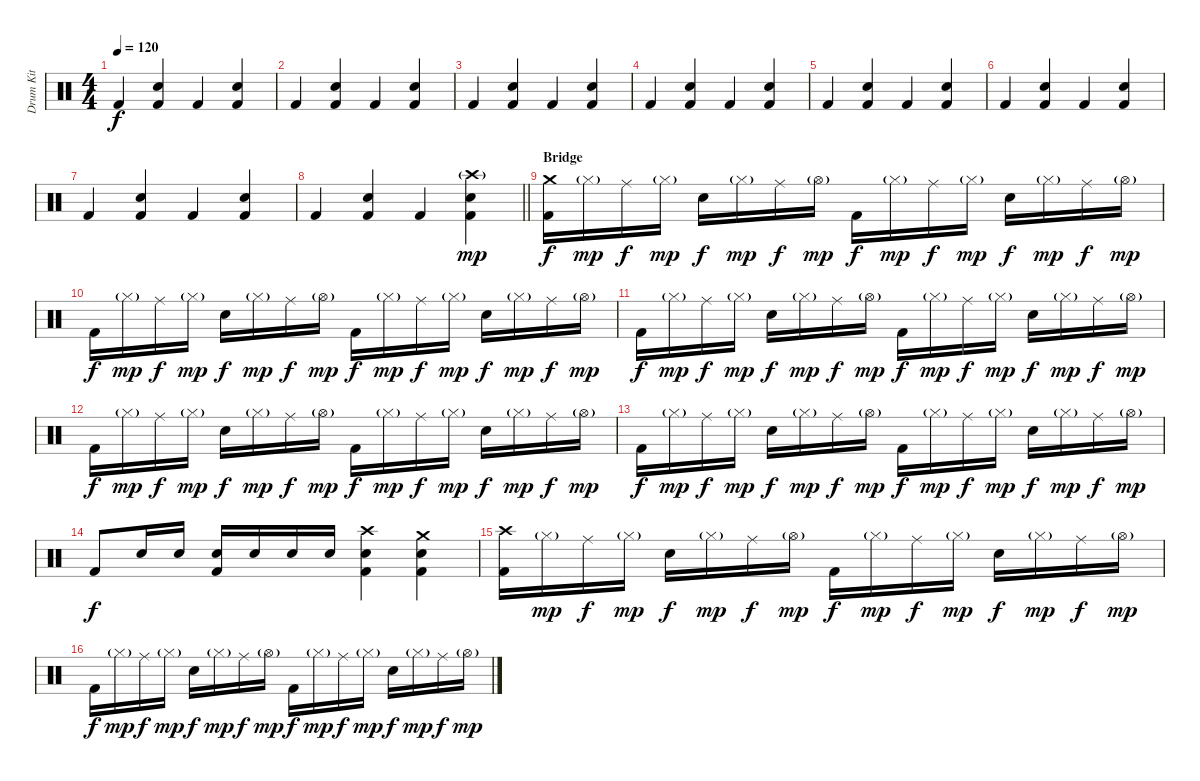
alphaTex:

\track ("Drum Kit" "Drum Kit") {instrument percussion}
\staff {score}
\articulation defaults
\ts (4 4)
\tempo 120
\clef neutral
\ks c "Kick (hit) 2".4{dy f}
("Electric Snare (hit)" "Kick (hit) 2").4 "Kick (hit) 2".4 ("Electric Snare (hit)" "Kick (hit) 2").4 |
"Kick (hit) 2".4 ("Electric Snare (hit)" "Kick (hit) 2").4 "Kick (hit) 2".4 ("Electric Snare (hit)" "Kick (hit) 2").4 |
"Kick (hit) 2".4 ("Electric Snare (hit)" "Kick (hit) 2").4 "Kick (hit) 2".4 ("Electric Snare (hit)" "Kick (hit) 2").4 |
"Kick (hit) 2".4 ("Electric Snare (hit)" "Kick (hit) 2").4 "Kick (hit) 2".4 ("Electric Snare (hit)" "Kick (hit) 2").4 |
"Kick (hit) 2".4 ("Electric Snare (hit)" "Kick (hit) 2").4 "Kick (hit) 2".4 ("Electric Snare (hit)" "Kick (hit) 2").4 |
"Kick (hit) 2".4 ("Electric Snare (hit)" "Kick (hit) 2").4 "Kick (hit) 2".4 ("Electric Snare (hit)" "Kick (hit) 2").4 |
"Kick (hit) 2".4 ("Electric Snare (hit)" "Kick (hit) 2").4 "Kick (hit) 2".4 ("Electric Snare (hit)" "Kick (hit) 2").4 |
\barLineRight lightlight "Kick (hit) 2".4
("Electric Snare (hit)" "Kick (hit) 2").4 "Kick (hit) 2".4 ("Crash high (hit)"{g} "Electric Snare (hit)" "Kick (hit) 2").4{dy mp} |
\section ("" "Bridge")
("Crash medium (hit)" "Kick (hit) 2").16{dy f} "Hi-Hat (closed)"{g}.16{dy mp} "Ride (middle)".16{dy f} "Hi-Hat (closed)"{g}.16{dy mp} "Electric Snare (hit)".16{dy f} "Hi-Hat (closed)"{g}.16{dy mp} "Ride (middle)".16{dy f} "Hi-Hat (open)"{g}.16{dy mp} "Kick (hit) 2".16{dy f} "Hi-Hat (closed)"{g}.16{dy mp} "Ride (middle)".16{dy f} "Hi-Hat (closed)"{g}.16{dy mp} "Electric Snare (hit)".16{dy f} "Hi-Hat (closed)"{g}.16{dy mp} "Ride (middle)".16{dy f} "Hi-Hat (open)"{g}.16{dy mp} |
"Kick (hit) 2".16{dy f} "Hi-Hat (closed)"{g}.16{dy mp} "Ride (middle)".16{dy f} "Hi-Hat (closed)"{g}.16{dy mp} "Electric Snare (hit)".16{dy f} "Hi-Hat (closed)"{g}.16{dy mp} "Ride (middle)".16{dy f} "Hi-Hat (open)"{g}.16{dy mp} "Kick (hit) 2".16{dy f} "Hi-Hat (closed)"{g}.16{dy mp} "Ride (middle)".16{dy f} "Hi-Hat (closed)"{g}.16{dy mp} "Electric Snare (hit)".16{dy f} "Hi-Hat (closed)"{g}.16{dy mp} "Ride (middle)".16{dy f} "Hi-Hat (open)"{g}.16{dy mp} |
"Kick (hit) 2".16{dy f} "Hi-Hat (closed)"{g}.16{dy mp} "Ride (middle)".16{dy f} "Hi-Hat (closed)"{g}.16{dy mp} "Electric Snare (hit)".16{dy f} "Hi-Hat (closed)"{g}.16{dy mp} "Ride (middle)".16{dy f} "Hi-Hat (open)"{g}.16{dy mp} "Kick (hit) 2".16{dy f} "Hi-Hat (closed)"{g}.16{dy mp} "Ride (middle)".16{dy f} "Hi-Hat (closed)"{g}.16{dy mp} "Electric Snare (hit)".16{dy f} "Hi-Hat (closed)"{g}.16{dy mp} "Ride (middle)".16{dy f} "Hi-Hat (open)"{g}.16{dy mp} |
"Kick (hit) 2".16{dy f} "Hi-Hat (closed)"{g}.16{dy mp} "Ride (middle)".16{dy f} "Hi-Hat (closed)"{g}.16{dy mp} "Electric Snare (hit)".16{dy f} "Hi-Hat (closed)"{g}.16{dy mp} "Ride (middle)".16{dy f} "Hi-Hat (open)"{g}.16{dy mp} "Kick (hit) 2".16{dy f} "Hi-Hat (closed)"{g}.16{dy mp} "Ride (middle)".16{dy f} "Hi-Hat (closed)"{g}.16{dy mp} "Electric Snare (hit)".16{dy f} "Hi-Hat (closed)"{g}.16{dy mp} "Ride (middle)".16{dy f} "Hi-Hat (open)"{g}.16{dy mp} |
"Kick (hit) 2".16{dy f} "Hi-Hat (closed)"{g}.16{dy mp} "Ride (middle)".16{dy f} "Hi-Hat (closed)"{g}.16{dy mp} "Electric Snare (hit)".16{dy f} "Hi-Hat (closed)"{g}.16{dy mp} "Ride (middle)".16{dy f} "Hi-Hat (open)"{g}.16{dy mp} "Kick (hit) 2".16{dy f} "Hi-Hat (closed)"{g}.16{dy mp} "Ride (middle)".16{dy f} "Hi-Hat (closed)"{g}.16{dy mp} "Electric Snare (hit)".16{dy f} "Hi-Hat (closed)"{g}.16{dy mp} "Ride (middle)".16{dy f} "Hi-Hat (open)"{g}.16{dy mp} |
"Kick (hit) 2".8{dy f} "Electric Snare (hit)".16 "Electric Snare (hit)".16 ("Electric Snare (hit)" "Kick (hit) 2").16 "Electric Snare (hit)".16 "Electric Snare (hit)".16 "Electric Snare (hit)".16 ("Crash high (hit)" "Electric Snare (hit)" "Kick (hit) 2").4 ("Crash medium (hit)" "Electric Snare (hit)" "Kick (hit) 2").4 |
("Crash high (hit)" "Kick (hit) 2").16 "Hi-Hat (closed)"{g}.16{dy mp} "Ride (middle)".16{dy f} "Hi-Hat (closed)"{g}.16{dy mp} "Electric Snare (hit)".16{dy f} "Hi-Hat (closed)"{g}.16{dy mp} "Ride (middle)".16{dy f} "Hi-Hat (open)"{g}.16{dy mp} "Kick (hit) 2".16{dy f} "Hi-Hat (closed)"{g}.16{dy mp} "Ride (middle)".16{dy f} "Hi-Hat (closed)"{g}.16{dy mp} "Electric Snare (hit)".16{dy f} "Hi-Hat (closed)"{g}.16{dy mp} "Ride (middle)".16{dy f} "Hi-Hat (open)"{g}.16{dy mp} |
"Kick (hit) 2".16{dy f} "Hi-Hat (closed)"{g}.16{dy mp} "Ride (middle)".16{dy f} "Hi-Hat (closed)"{g}.16{dy mp} "Electric Snare (hit)".16{dy f} "Hi-Hat (closed)"{g}.16{dy mp} "Ride (middle)".16{dy f} "Hi-Hat (open)"{g}.16{dy mp} "Kick (hit) 2".16{dy f} "Hi-Hat (closed)"{g}.16{dy mp} "Ride (middle)".16{dy f} "Hi-Hat (closed)"{g}.16{dy mp} "Electric Snare (hit)".16{dy f} "Hi-Hat (closed)"{g}.16{dy mp} "Ride (middle)".16{dy f} "Hi-Hat (open)"{g}.16{dy mp}
